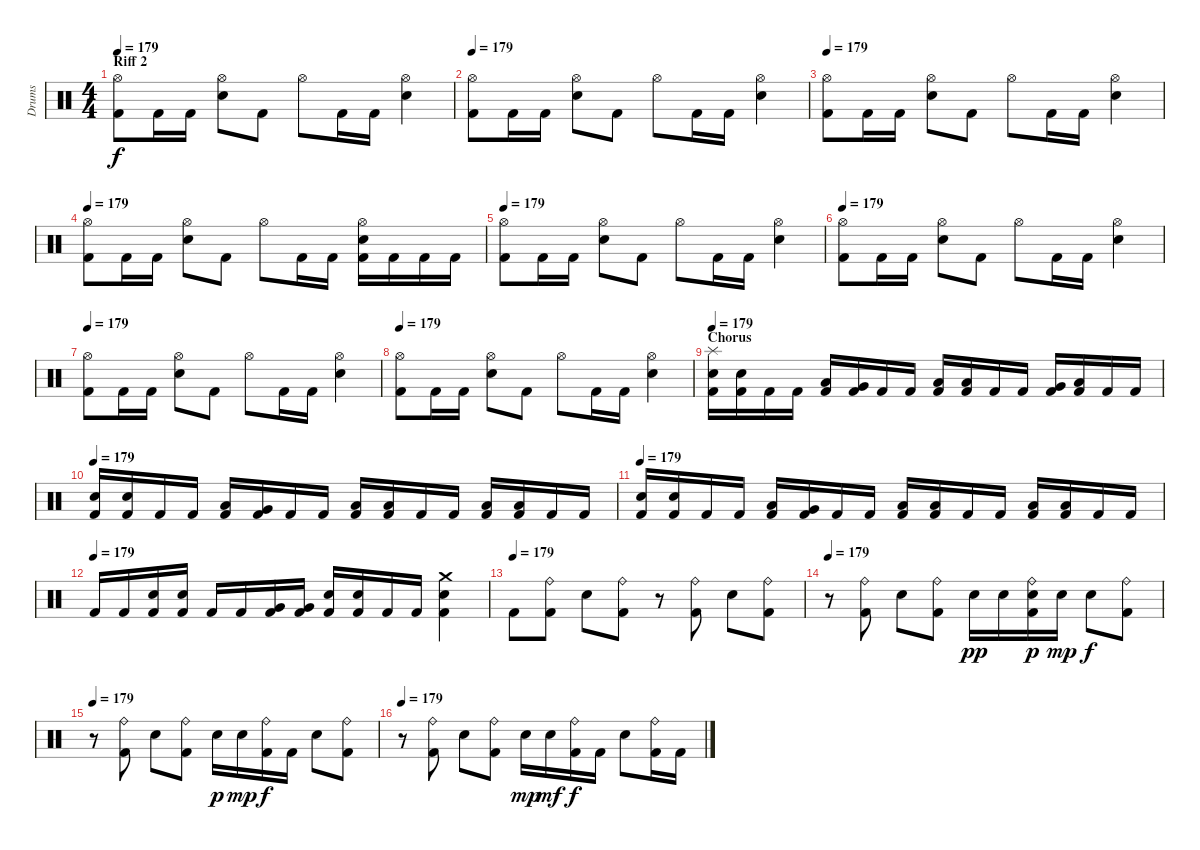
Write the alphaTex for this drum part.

\track ("Drums" "Drums") {instrument percussion}
\staff {score}
\articulation defaults
\ts (4 4)
\section ("" "Riff 2")
\tempo 179
\clef neutral
\ks c
("Hi-Hat (open)" "Kick (hit) 2").8{dy f} "Kick (hit) 2".16 "Kick (hit) 2".16 ("Hi-Hat (open)" "Electric Snare (hit)").8 "Kick (hit) 2".8 "Hi-Hat (open)".8 "Kick (hit) 2".16 "Kick (hit) 2".16 ("Hi-Hat (open)" "Electric Snare (hit)").4 |
\tempo 179
("Hi-Hat (open)" "Kick (hit) 2").8 "Kick (hit) 2".16 "Kick (hit) 2".16 ("Hi-Hat (open)" "Electric Snare (hit)").8 "Kick (hit) 2".8 "Hi-Hat (open)".8 "Kick (hit) 2".16 "Kick (hit) 2".16 ("Hi-Hat (open)" "Electric Snare (hit)").4 |
\tempo 179
("Hi-Hat (open)" "Kick (hit) 2").8 "Kick (hit) 2".16 "Kick (hit) 2".16 ("Hi-Hat (open)" "Electric Snare (hit)").8 "Kick (hit) 2".8 "Hi-Hat (open)".8 "Kick (hit) 2".16 "Kick (hit) 2".16 ("Hi-Hat (open)" "Electric Snare (hit)").4 |
\tempo 179
("Hi-Hat (open)" "Kick (hit) 2").8 "Kick (hit) 2".16 "Kick (hit) 2".16 ("Hi-Hat (open)" "Electric Snare (hit)").8 "Kick (hit) 2".8 "Hi-Hat (open)".8 "Kick (hit) 2".16 "Kick (hit) 2".16 ("Hi-Hat (open)" "Electric Snare (hit)" "Kick (hit) 2").16 "Kick (hit) 2".16 "Kick (hit) 2".16 "Kick (hit) 2".16 |
\tempo 179
("Hi-Hat (open)" "Kick (hit) 2").8 "Kick (hit) 2".16 "Kick (hit) 2".16 ("Hi-Hat (open)" "Electric Snare (hit)").8 "Kick (hit) 2".8 "Hi-Hat (open)".8 "Kick (hit) 2".16 "Kick (hit) 2".16 ("Hi-Hat (open)" "Electric Snare (hit)").4 |
\tempo 179
("Hi-Hat (open)" "Kick (hit) 2").8 "Kick (hit) 2".16 "Kick (hit) 2".16 ("Hi-Hat (open)" "Electric Snare (hit)").8 "Kick (hit) 2".8 "Hi-Hat (open)".8 "Kick (hit) 2".16 "Kick (hit) 2".16 ("Hi-Hat (open)" "Electric Snare (hit)").4 |
\tempo 179
("Hi-Hat (open)" "Kick (hit) 2").8 "Kick (hit) 2".16 "Kick (hit) 2".16 ("Hi-Hat (open)" "Electric Snare (hit)").8 "Kick (hit) 2".8 "Hi-Hat (open)".8 "Kick (hit) 2".16 "Kick (hit) 2".16 ("Hi-Hat (open)" "Electric Snare (hit)").4 |
\tempo 179
("Hi-Hat (open)" "Kick (hit) 2").8 "Kick (hit) 2".16 "Kick (hit) 2".16 ("Hi-Hat (open)" "Electric Snare (hit)").8 "Kick (hit) 2".8 "Hi-Hat (open)".8 "Kick (hit) 2".16 "Kick (hit) 2".16 ("Hi-Hat (open)" "Electric Snare (hit)").4 |
\section ("" "Chorus")
\tempo 179
("Splash (hit)" "Electric Snare (hit)" "Kick (hit) 2").16 ("Electric Snare (hit)" "Kick (hit) 2").16 "Kick (hit) 2".16 "Kick (hit) 2".16 ("Low Tom (hit)" "Kick (hit) 2").16 ("Very Low Tom (hit)" "Kick (hit) 2").16 "Kick (hit) 2".16 "Kick (hit) 2".16 ("Low Tom (hit)" "Kick (hit) 2").16 ("Low Tom (hit)" "Kick (hit) 2").16 "Kick (hit) 2".16 "Kick (hit) 2".16 ("Very Low Tom (hit)" "Kick (hit) 2").16 ("Low Floor Tom (hit)" "Kick (hit) 2").16 "Kick (hit) 2".16 "Kick (hit) 2".16 |
\tempo 179
("Electric Snare (hit)" "Kick (hit) 2").16 ("Electric Snare (hit)" "Kick (hit) 2").16 "Kick (hit) 2".16 "Kick (hit) 2".16 ("Low Tom (hit)" "Kick (hit) 2").16 ("Very Low Tom (hit)" "Kick (hit) 2").16 "Kick (hit) 2".16 "Kick (hit) 2".16 ("Low Tom (hit)" "Kick (hit) 2").16 ("Low Tom (hit)" "Kick (hit) 2").16 "Kick (hit) 2".16 "Kick (hit) 2".16 ("Low Floor Tom (hit)" "Kick (hit) 2").16 ("Low Floor Tom (hit)" "Kick (hit) 2").16 "Kick (hit) 2".16 "Kick (hit) 2".16 |
\tempo 179
("Electric Snare (hit)" "Kick (hit) 2").16 ("Electric Snare (hit)" "Kick (hit) 2").16 "Kick (hit) 2".16 "Kick (hit) 2".16 ("Low Tom (hit)" "Kick (hit) 2").16 ("Very Low Tom (hit)" "Kick (hit) 2").16 "Kick (hit) 2".16 "Kick (hit) 2".16 ("Low Tom (hit)" "Kick (hit) 2").16 ("Low Tom (hit)" "Kick (hit) 2").16 "Kick (hit) 2".16 "Kick (hit) 2".16 ("Low Floor Tom (hit)" "Kick (hit) 2").16 ("Low Floor Tom (hit)" "Kick (hit) 2").16 "Kick (hit) 2".16 "Kick (hit) 2".16 |
\tempo (179)
"Kick (hit) 2".16 "Kick (hit) 2".16 ("Electric Snare (hit)" "Kick (hit) 2").16 ("Electric Snare (hit)" "Kick (hit) 2").16 "Kick (hit) 2".16 "Kick (hit) 2".16 ("Very Low Tom (hit)" "Kick (hit) 2").16 ("Very Low Tom (hit)" "Kick (hit) 2").16 ("Electric Snare (hit)" "Kick (hit) 2").16 ("Electric Snare (hit)" "Kick (hit) 2").16 "Kick (hit) 2".16 "Kick (hit) 2".16 ("Crash medium (hit)" "Electric Snare (hit)" "Kick (hit) 2").4 |
\tempo (179)
"Kick (hit) 2".8 ("Ride (bell)" "Kick (hit) 2").8 "Electric Snare (hit)".8 ("Ride (bell)" "Kick (hit) 2").8 r.8 ("Ride (bell)" "Kick (hit) 2").8 "Electric Snare (hit)".8 ("Ride (bell)" "Kick (hit) 2").8 |
\tempo 179
r.8 ("Ride (bell)" "Kick (hit) 2").8 "Electric Snare (hit)".8 ("Ride (bell)" "Kick (hit) 2").8 "Electric Snare (hit)".16{dy pp} "Electric Snare (hit)".16 ("Ride (bell)" "Electric Snare (hit)" "Kick (hit) 2").16{dy p} "Electric Snare (hit)".16{dy mp} "Electric Snare (hit)".8{dy f} ("Ride (bell)" "Kick (hit) 2").8 |
\tempo 179
r.8 ("Ride (bell)" "Kick (hit) 2").8 "Electric Snare (hit)".8 ("Ride (bell)" "Kick (hit) 2").8 "Electric Snare (hit)".16{dy p} "Electric Snare (hit)".16{dy mp} ("Ride (bell)" "Kick (hit) 2").16{dy f} "Kick (hit) 2".16 "Electric Snare (hit)".8 ("Ride (bell)" "Kick (hit) 2").8 |
\tempo 179
r.8 ("Ride (bell)" "Kick (hit) 2").8 "Electric Snare (hit)".8 ("Ride (bell)" "Kick (hit) 2").8 "Electric Snare (hit)".16{dy mp} "Electric Snare (hit)".16{dy mf} ("Ride (bell)" "Kick (hit) 2").16{dy f} "Kick (hit) 2".16 "Electric Snare (hit)".8 ("Ride (bell)" "Kick (hit) 2").16 "Kick (hit) 2".16
